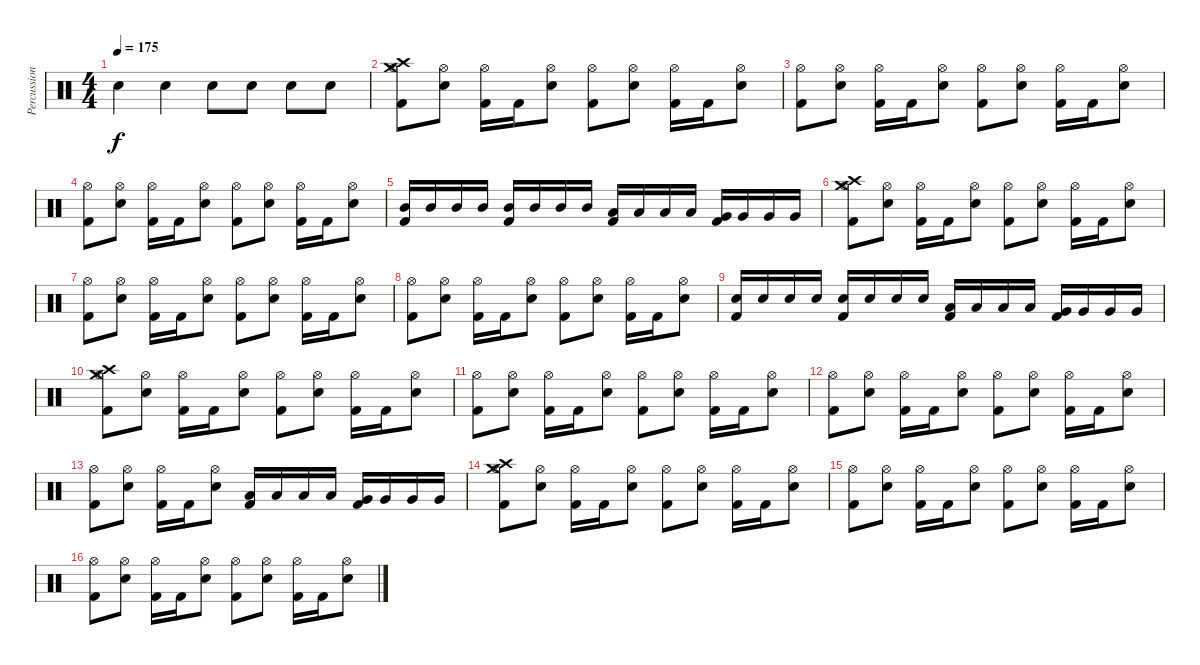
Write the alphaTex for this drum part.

\track ("Percussions" "Percussion") {instrument percussion}
\staff {score}
\articulation defaults
\ts (4 4)
\tempo 175
\clef neutral
\ks c "Electric Snare (hit)".4{dy f} "Electric Snare (hit)".4 "Electric Snare (hit)".8 "Electric Snare (hit)".8 "Electric Snare (hit)".8 "Electric Snare (hit)".8
|
("Hi-Hat (open)" "Crash high (hit)" "Crash medium (hit)" "Kick (hit) 2").8 ("Hi-Hat (open)" "Electric Snare (hit)").8 ("Hi-Hat (open)" "Kick (hit) 2").16 "Kick (hit) 2".16 ("Hi-Hat (open)" "Electric Snare (hit)").8 ("Hi-Hat (open)" "Kick (hit) 2").8 ("Hi-Hat (open)" "Electric Snare (hit)").8 ("Hi-Hat (open)" "Kick (hit) 2").16 "Kick (hit) 2".16 ("Hi-Hat (open)" "Electric Snare (hit)").8 |
("Hi-Hat (open)" "Kick (hit) 2").8 ("Hi-Hat (open)" "Electric Snare (hit)").8 ("Hi-Hat (open)" "Kick (hit) 2").16 "Kick (hit) 2".16 ("Hi-Hat (open)" "Electric Snare (hit)").8 ("Hi-Hat (open)" "Kick (hit) 2").8 ("Hi-Hat (open)" "Electric Snare (hit)").8 ("Hi-Hat (open)" "Kick (hit) 2").16 "Kick (hit) 2".16 ("Hi-Hat (open)" "Electric Snare (hit)").8 |
("Hi-Hat (open)" "Kick (hit) 2").8 ("Hi-Hat (open)" "Electric Snare (hit)").8 ("Hi-Hat (open)" "Kick (hit) 2").16 "Kick (hit) 2".16 ("Hi-Hat (open)" "Electric Snare (hit)").8 ("Hi-Hat (open)" "Kick (hit) 2").8 ("Hi-Hat (open)" "Electric Snare (hit)").8 ("Hi-Hat (open)" "Kick (hit) 2").16 "Kick (hit) 2".16 ("Hi-Hat (open)" "Electric Snare (hit)").8 |
("Mid Tom (hit)" "Kick (hit) 2").16 "Mid Tom (hit)".16 "Mid Tom (hit)".16 "Mid Tom (hit)".16 ("Mid Tom (hit)" "Kick (hit) 2").16 "Mid Tom (hit)".16 "Mid Tom (hit)".16 "Mid Tom (hit)".16 ("Low Tom (hit)" "Kick (hit) 2").16 "Low Tom (hit)".16 "Low Tom (hit)".16 "Low Tom (hit)".16 ("Very Low Tom (hit)" "Kick (hit) 2").16 "Very Low Tom (hit)".16 "Very Low Tom (hit)".16 "Very Low Tom (hit)".16 |
("Hi-Hat (open)" "Crash high (hit)" "Crash medium (hit)" "Kick (hit) 2").8 ("Hi-Hat (open)" "Electric Snare (hit)").8 ("Hi-Hat (open)" "Kick (hit) 2").16 "Kick (hit) 2".16 ("Hi-Hat (open)" "Electric Snare (hit)").8 ("Hi-Hat (open)" "Kick (hit) 2").8 ("Hi-Hat (open)" "Electric Snare (hit)").8 ("Hi-Hat (open)" "Kick (hit) 2").16 "Kick (hit) 2".16 ("Hi-Hat (open)" "Electric Snare (hit)").8 |
("Hi-Hat (open)" "Kick (hit) 2").8 ("Hi-Hat (open)" "Electric Snare (hit)").8 ("Hi-Hat (open)" "Kick (hit) 2").16 "Kick (hit) 2".16 ("Hi-Hat (open)" "Electric Snare (hit)").8 ("Hi-Hat (open)" "Kick (hit) 2").8 ("Hi-Hat (open)" "Electric Snare (hit)").8 ("Hi-Hat (open)" "Kick (hit) 2").16 "Kick (hit) 2".16 ("Hi-Hat (open)" "Electric Snare (hit)").8 |
("Hi-Hat (open)" "Kick (hit) 2").8 ("Hi-Hat (open)" "Electric Snare (hit)").8 ("Hi-Hat (open)" "Kick (hit) 2").16 "Kick (hit) 2".16 ("Hi-Hat (open)" "Electric Snare (hit)").8 ("Hi-Hat (open)" "Kick (hit) 2").8 ("Hi-Hat (open)" "Electric Snare (hit)").8 ("Hi-Hat (open)" "Kick (hit) 2").16 "Kick (hit) 2".16 ("Hi-Hat (open)" "Electric Snare (hit)").8 |
("Electric Snare (hit)" "Kick (hit) 2").16 "Electric Snare (hit)".16 "Electric Snare (hit)".16 "Electric Snare (hit)".16 ("Electric Snare (hit)" "Kick (hit) 2").16 "Electric Snare (hit)".16 "Electric Snare (hit)".16 "Electric Snare (hit)".16 ("Low Tom (hit)" "Kick (hit) 2").16 "Low Tom (hit)".16 "Low Tom (hit)".16 "Low Tom (hit)".16 ("Very Low Tom (hit)" "Kick (hit) 2").16 "Very Low Tom (hit)".16 "Very Low Tom (hit)".16 "Very Low Tom (hit)".16 |
("Hi-Hat (open)" "Crash high (hit)" "Crash medium (hit)" "Kick (hit) 2").8 ("Hi-Hat (open)" "Electric Snare (hit)").8 ("Hi-Hat (open)" "Kick (hit) 2").16 "Kick (hit) 2".16 ("Hi-Hat (open)" "Electric Snare (hit)").8 ("Hi-Hat (open)" "Kick (hit) 2").8 ("Hi-Hat (open)" "Electric Snare (hit)").8 ("Hi-Hat (open)" "Kick (hit) 2").16 "Kick (hit) 2".16 ("Hi-Hat (open)" "Electric Snare (hit)").8 |
("Hi-Hat (open)" "Kick (hit) 2").8 ("Hi-Hat (open)" "Electric Snare (hit)").8 ("Hi-Hat (open)" "Kick (hit) 2").16 "Kick (hit) 2".16 ("Hi-Hat (open)" "Electric Snare (hit)").8 ("Hi-Hat (open)" "Kick (hit) 2").8 ("Hi-Hat (open)" "Electric Snare (hit)").8 ("Hi-Hat (open)" "Kick (hit) 2").16 "Kick (hit) 2".16 ("Hi-Hat (open)" "Electric Snare (hit)").8 |
("Hi-Hat (open)" "Kick (hit) 2").8 ("Hi-Hat (open)" "Electric Snare (hit)").8 ("Hi-Hat (open)" "Kick (hit) 2").16 "Kick (hit) 2".16 ("Hi-Hat (open)" "Electric Snare (hit)").8 ("Hi-Hat (open)" "Kick (hit) 2").8 ("Hi-Hat (open)" "Electric Snare (hit)").8 ("Hi-Hat (open)" "Kick (hit) 2").16 "Kick (hit) 2".16 ("Hi-Hat (open)" "Electric Snare (hit)").8 |
("Hi-Hat (open)" "Kick (hit) 2").8 ("Hi-Hat (open)" "Electric Snare (hit)").8 ("Hi-Hat (open)" "Kick (hit) 2").16 "Kick (hit) 2".16 ("Hi-Hat (open)" "Electric Snare (hit)").8 ("Low Tom (hit)" "Kick (hit) 2").16 "Low Tom (hit)".16 "Low Tom (hit)".16 "Low Tom (hit)".16 ("Very Low Tom (hit)" "Kick (hit) 2").16 "Very Low Tom (hit)".16 "Very Low Tom (hit)".16 "Very Low Tom (hit)".16 |
("Hi-Hat (open)" "Crash high (hit)" "Crash medium (hit)" "Kick (hit) 2").8 ("Hi-Hat (open)" "Electric Snare (hit)").8 ("Hi-Hat (open)" "Kick (hit) 2").16 "Kick (hit) 2".16 ("Hi-Hat (open)" "Electric Snare (hit)").8 ("Hi-Hat (open)" "Kick (hit) 2").8 ("Hi-Hat (open)" "Electric Snare (hit)").8 ("Hi-Hat (open)" "Kick (hit) 2").16 "Kick (hit) 2".16 ("Hi-Hat (open)" "Electric Snare (hit)").8 |
("Hi-Hat (open)" "Kick (hit) 2").8 ("Hi-Hat (open)" "Electric Snare (hit)").8 ("Hi-Hat (open)" "Kick (hit) 2").16 "Kick (hit) 2".16 ("Hi-Hat (open)" "Electric Snare (hit)").8 ("Hi-Hat (open)" "Kick (hit) 2").8 ("Hi-Hat (open)" "Electric Snare (hit)").8 ("Hi-Hat (open)" "Kick (hit) 2").16 "Kick (hit) 2".16 ("Hi-Hat (open)" "Electric Snare (hit)").8 |
("Hi-Hat (open)" "Kick (hit) 2").8 ("Hi-Hat (open)" "Electric Snare (hit)").8 ("Hi-Hat (open)" "Kick (hit) 2").16 "Kick (hit) 2".16 ("Hi-Hat (open)" "Electric Snare (hit)").8 ("Hi-Hat (open)" "Kick (hit) 2").8 ("Hi-Hat (open)" "Electric Snare (hit)").8 ("Hi-Hat (open)" "Kick (hit) 2").16 "Kick (hit) 2".16 ("Hi-Hat (open)" "Electric Snare (hit)").8
